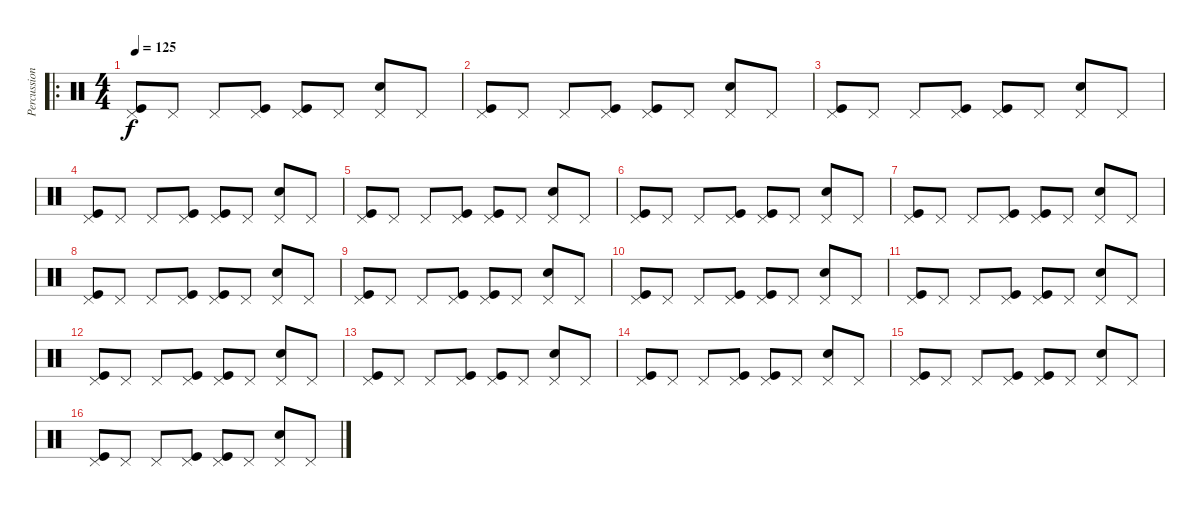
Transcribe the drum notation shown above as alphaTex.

\track ("Percussion" "Percussion") {instrument percussion}
\staff {score}
\articulation defaults
\ro
\ts (4 4)
\tempo 125
\clef neutral
\ks c
("Pedal Hi-Hat (hit)" "Kick (hit)").8{dy f} "Pedal Hi-Hat (hit)".8 "Pedal Hi-Hat (hit)".8 ("Pedal Hi-Hat (hit)" "Kick (hit)").8 ("Pedal Hi-Hat (hit)" "Kick (hit)").8 "Pedal Hi-Hat (hit)".8 ("Pedal Hi-Hat (hit)" "Snare (hit) 2").8 "Pedal Hi-Hat (hit)".8 |
("Pedal Hi-Hat (hit)" "Kick (hit)").8 "Pedal Hi-Hat (hit)".8 "Pedal Hi-Hat (hit)".8 ("Pedal Hi-Hat (hit)" "Kick (hit)").8 ("Pedal Hi-Hat (hit)" "Kick (hit)").8 "Pedal Hi-Hat (hit)".8 ("Pedal Hi-Hat (hit)" "Snare (hit) 2").8 "Pedal Hi-Hat (hit)".8 |
("Pedal Hi-Hat (hit)" "Kick (hit)").8 "Pedal Hi-Hat (hit)".8 "Pedal Hi-Hat (hit)".8 ("Pedal Hi-Hat (hit)" "Kick (hit)").8 ("Pedal Hi-Hat (hit)" "Kick (hit)").8 "Pedal Hi-Hat (hit)".8 ("Pedal Hi-Hat (hit)" "Snare (hit) 2").8 "Pedal Hi-Hat (hit)".8 |
("Pedal Hi-Hat (hit)" "Kick (hit)").8 "Pedal Hi-Hat (hit)".8 "Pedal Hi-Hat (hit)".8 ("Pedal Hi-Hat (hit)" "Kick (hit)").8 ("Pedal Hi-Hat (hit)" "Kick (hit)").8 "Pedal Hi-Hat (hit)".8 ("Pedal Hi-Hat (hit)" "Snare (hit) 2").8 "Pedal Hi-Hat (hit)".8 |
("Pedal Hi-Hat (hit)" "Kick (hit)").8 "Pedal Hi-Hat (hit)".8 "Pedal Hi-Hat (hit)".8 ("Pedal Hi-Hat (hit)" "Kick (hit)").8 ("Pedal Hi-Hat (hit)" "Kick (hit)").8 "Pedal Hi-Hat (hit)".8 ("Pedal Hi-Hat (hit)" "Snare (hit) 2").8 "Pedal Hi-Hat (hit)".8 |
("Pedal Hi-Hat (hit)" "Kick (hit)").8 "Pedal Hi-Hat (hit)".8 "Pedal Hi-Hat (hit)".8 ("Pedal Hi-Hat (hit)" "Kick (hit)").8 ("Pedal Hi-Hat (hit)" "Kick (hit)").8 "Pedal Hi-Hat (hit)".8 ("Pedal Hi-Hat (hit)" "Snare (hit) 2").8 "Pedal Hi-Hat (hit)".8 |
("Pedal Hi-Hat (hit)" "Kick (hit)").8 "Pedal Hi-Hat (hit)".8 "Pedal Hi-Hat (hit)".8 ("Pedal Hi-Hat (hit)" "Kick (hit)").8 ("Pedal Hi-Hat (hit)" "Kick (hit)").8 "Pedal Hi-Hat (hit)".8 ("Pedal Hi-Hat (hit)" "Snare (hit) 2").8 "Pedal Hi-Hat (hit)".8 |
("Pedal Hi-Hat (hit)" "Kick (hit)").8 "Pedal Hi-Hat (hit)".8 "Pedal Hi-Hat (hit)".8 ("Pedal Hi-Hat (hit)" "Kick (hit)").8 ("Pedal Hi-Hat (hit)" "Kick (hit)").8 "Pedal Hi-Hat (hit)".8 ("Pedal Hi-Hat (hit)" "Snare (hit) 2").8 "Pedal Hi-Hat (hit)".8 |
("Pedal Hi-Hat (hit)" "Kick (hit)").8 "Pedal Hi-Hat (hit)".8 "Pedal Hi-Hat (hit)".8 ("Pedal Hi-Hat (hit)" "Kick (hit)").8 ("Pedal Hi-Hat (hit)" "Kick (hit)").8 "Pedal Hi-Hat (hit)".8 ("Pedal Hi-Hat (hit)" "Snare (hit) 2").8 "Pedal Hi-Hat (hit)".8 |
("Pedal Hi-Hat (hit)" "Kick (hit)").8 "Pedal Hi-Hat (hit)".8 "Pedal Hi-Hat (hit)".8 ("Pedal Hi-Hat (hit)" "Kick (hit)").8 ("Pedal Hi-Hat (hit)" "Kick (hit)").8 "Pedal Hi-Hat (hit)".8 ("Pedal Hi-Hat (hit)" "Snare (hit) 2").8 "Pedal Hi-Hat (hit)".8 |
("Pedal Hi-Hat (hit)" "Kick (hit)").8 "Pedal Hi-Hat (hit)".8 "Pedal Hi-Hat (hit)".8 ("Pedal Hi-Hat (hit)" "Kick (hit)").8 ("Pedal Hi-Hat (hit)" "Kick (hit)").8 "Pedal Hi-Hat (hit)".8 ("Pedal Hi-Hat (hit)" "Snare (hit) 2").8 "Pedal Hi-Hat (hit)".8 |
("Pedal Hi-Hat (hit)" "Kick (hit)").8 "Pedal Hi-Hat (hit)".8 "Pedal Hi-Hat (hit)".8 ("Pedal Hi-Hat (hit)" "Kick (hit)").8 ("Pedal Hi-Hat (hit)" "Kick (hit)").8 "Pedal Hi-Hat (hit)".8 ("Pedal Hi-Hat (hit)" "Snare (hit) 2").8 "Pedal Hi-Hat (hit)".8 |
("Pedal Hi-Hat (hit)" "Kick (hit)").8 "Pedal Hi-Hat (hit)".8 "Pedal Hi-Hat (hit)".8 ("Pedal Hi-Hat (hit)" "Kick (hit)").8 ("Pedal Hi-Hat (hit)" "Kick (hit)").8 "Pedal Hi-Hat (hit)".8 ("Pedal Hi-Hat (hit)" "Snare (hit) 2").8 "Pedal Hi-Hat (hit)".8 |
("Pedal Hi-Hat (hit)" "Kick (hit)").8 "Pedal Hi-Hat (hit)".8 "Pedal Hi-Hat (hit)".8 ("Pedal Hi-Hat (hit)" "Kick (hit)").8 ("Pedal Hi-Hat (hit)" "Kick (hit)").8 "Pedal Hi-Hat (hit)".8 ("Pedal Hi-Hat (hit)" "Snare (hit) 2").8 "Pedal Hi-Hat (hit)".8 |
("Pedal Hi-Hat (hit)" "Kick (hit)").8 "Pedal Hi-Hat (hit)".8 "Pedal Hi-Hat (hit)".8 ("Pedal Hi-Hat (hit)" "Kick (hit)").8 ("Pedal Hi-Hat (hit)" "Kick (hit)").8 "Pedal Hi-Hat (hit)".8 ("Pedal Hi-Hat (hit)" "Snare (hit) 2").8 "Pedal Hi-Hat (hit)".8 |
("Pedal Hi-Hat (hit)" "Kick (hit)").8 "Pedal Hi-Hat (hit)".8 "Pedal Hi-Hat (hit)".8 ("Pedal Hi-Hat (hit)" "Kick (hit)").8 ("Pedal Hi-Hat (hit)" "Kick (hit)").8 "Pedal Hi-Hat (hit)".8 ("Pedal Hi-Hat (hit)" "Snare (hit) 2").8 "Pedal Hi-Hat (hit)".8
